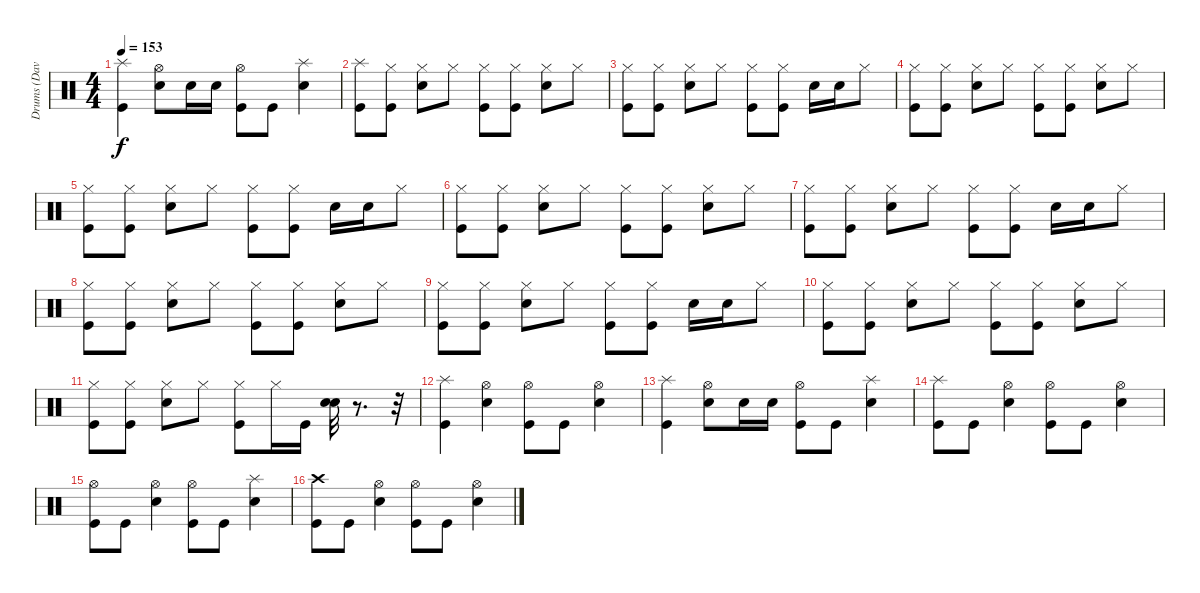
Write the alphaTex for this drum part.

\track ("Drums (Dave)" "Drums (Dav") {instrument percussion}
\staff {score}
\articulation defaults
\ts (4 4)
\tempo 153
\clef neutral
\ks c
("Splash (hit)" "Kick (hit)").4{dy f} ("Hi-Hat (open)" "Snare (hit) 2").8 "Snare (hit) 2".16 "Snare (hit) 2".16 ("Hi-Hat (open)" "Kick (hit)").8 "Kick (hit)".8 ("Splash (hit)" "Snare (hit) 2").4 |
("Splash (hit)" "Kick (hit)").8 ("Hi-Hat (closed)" "Kick (hit)").8 ("Hi-Hat (closed)" "Snare (hit) 2").8 "Hi-Hat (closed)".8 ("Hi-Hat (closed)" "Kick (hit)").8 ("Hi-Hat (closed)" "Kick (hit)").8 ("Hi-Hat (closed)" "Snare (hit) 2").8 "Hi-Hat (closed)".8 |
("Hi-Hat (closed)" "Kick (hit)").8 ("Hi-Hat (closed)" "Kick (hit)").8 ("Hi-Hat (closed)" "Snare (hit) 2").8 "Hi-Hat (closed)".8 ("Hi-Hat (closed)" "Kick (hit)").8 ("Hi-Hat (closed)" "Kick (hit)").8 "Snare (hit) 2".16 "Snare (hit) 2".16 "Hi-Hat (closed)".8 |
("Hi-Hat (closed)" "Kick (hit)").8 ("Hi-Hat (closed)" "Kick (hit)").8 ("Hi-Hat (closed)" "Snare (hit) 2").8 "Hi-Hat (closed)".8 ("Hi-Hat (closed)" "Kick (hit)").8 ("Hi-Hat (closed)" "Kick (hit)").8 ("Hi-Hat (closed)" "Snare (hit) 2").8 "Hi-Hat (closed)".8 |
("Hi-Hat (closed)" "Kick (hit)").8 ("Hi-Hat (closed)" "Kick (hit)").8 ("Hi-Hat (closed)" "Snare (hit) 2").8 "Hi-Hat (closed)".8 ("Hi-Hat (closed)" "Kick (hit)").8 ("Hi-Hat (closed)" "Kick (hit)").8 "Snare (hit) 2".16 "Snare (hit) 2".16 "Hi-Hat (closed)".8 |
("Hi-Hat (closed)" "Kick (hit)").8 ("Hi-Hat (closed)" "Kick (hit)").8 ("Hi-Hat (closed)" "Snare (hit) 2").8 "Hi-Hat (closed)".8 ("Hi-Hat (closed)" "Kick (hit)").8 ("Hi-Hat (closed)" "Kick (hit)").8 ("Hi-Hat (closed)" "Snare (hit) 2").8 "Hi-Hat (closed)".8 |
("Hi-Hat (closed)" "Kick (hit)").8 ("Hi-Hat (closed)" "Kick (hit)").8 ("Hi-Hat (closed)" "Snare (hit) 2").8 "Hi-Hat (closed)".8 ("Hi-Hat (closed)" "Kick (hit)").8 ("Hi-Hat (closed)" "Kick (hit)").8 "Snare (hit) 2".16 "Snare (hit) 2".16 "Hi-Hat (closed)".8 |
("Hi-Hat (closed)" "Kick (hit)").8 ("Hi-Hat (closed)" "Kick (hit)").8 ("Hi-Hat (closed)" "Snare (hit) 2").8 "Hi-Hat (closed)".8 ("Hi-Hat (closed)" "Kick (hit)").8 ("Hi-Hat (closed)" "Kick (hit)").8 ("Hi-Hat (closed)" "Snare (hit) 2").8 "Hi-Hat (closed)".8 |
("Hi-Hat (closed)" "Kick (hit)").8 ("Hi-Hat (closed)" "Kick (hit)").8 ("Hi-Hat (closed)" "Snare (hit) 2").8 "Hi-Hat (closed)".8 ("Hi-Hat (closed)" "Kick (hit)").8 ("Hi-Hat (closed)" "Kick (hit)").8 "Snare (hit) 2".16 "Snare (hit) 2".16 "Hi-Hat (closed)".8 |
("Hi-Hat (closed)" "Kick (hit)").8 ("Hi-Hat (closed)" "Kick (hit)").8 ("Hi-Hat (closed)" "Snare (hit) 2").8 "Hi-Hat (closed)".8 ("Hi-Hat (closed)" "Kick (hit)").8 ("Hi-Hat (closed)" "Kick (hit)").8 ("Hi-Hat (closed)" "Snare (hit) 2").8 "Hi-Hat (closed)".8 |
("Hi-Hat (closed)" "Kick (hit)").8 ("Hi-Hat (closed)" "Kick (hit)").8 ("Hi-Hat (closed)" "Snare (hit) 2").8 "Hi-Hat (closed)".8 ("Hi-Hat (closed)" "Kick (hit)").8 "Hi-Hat (closed)".16 "Kick (hit)".16 ("Snare (hit) 2" "Snare (hit) 2").32 r.8{d} r.32 |
("Splash (hit)" "Kick (hit)").4 ("Hi-Hat (open)" "Snare (hit) 2").4 ("Hi-Hat (open)" "Kick (hit)").8 "Kick (hit)".8 ("Hi-Hat (open)" "Snare (hit) 2").4 |
("Splash (hit)" "Kick (hit)").4 ("Hi-Hat (open)" "Snare (hit) 2").8 "Snare (hit) 2".16 "Snare (hit) 2".16 ("Hi-Hat (open)" "Kick (hit)").8 "Kick (hit)".8 ("Splash (hit)" "Snare (hit) 2").4 |
("Splash (hit)" "Kick (hit)").8 "Kick (hit)".8 ("Hi-Hat (open)" "Snare (hit) 2").4 ("Hi-Hat (open)" "Kick (hit)").8 "Kick (hit)".8 ("Hi-Hat (open)" "Snare (hit) 2").4 |
("Hi-Hat (open)" "Kick (hit)").8 "Kick (hit)".8 ("Hi-Hat (open)" "Snare (hit) 2").4 ("Hi-Hat (open)" "Kick (hit)").8 "Kick (hit)".8 ("Splash (hit)" "Snare (hit) 2").4 |
("Crash high (hit)" "Kick (hit)").8 "Kick (hit)".8 ("Hi-Hat (open)" "Snare (hit) 2").4 ("Hi-Hat (open)" "Kick (hit)").8 "Kick (hit)".8 ("Hi-Hat (open)" "Snare (hit) 2").4
